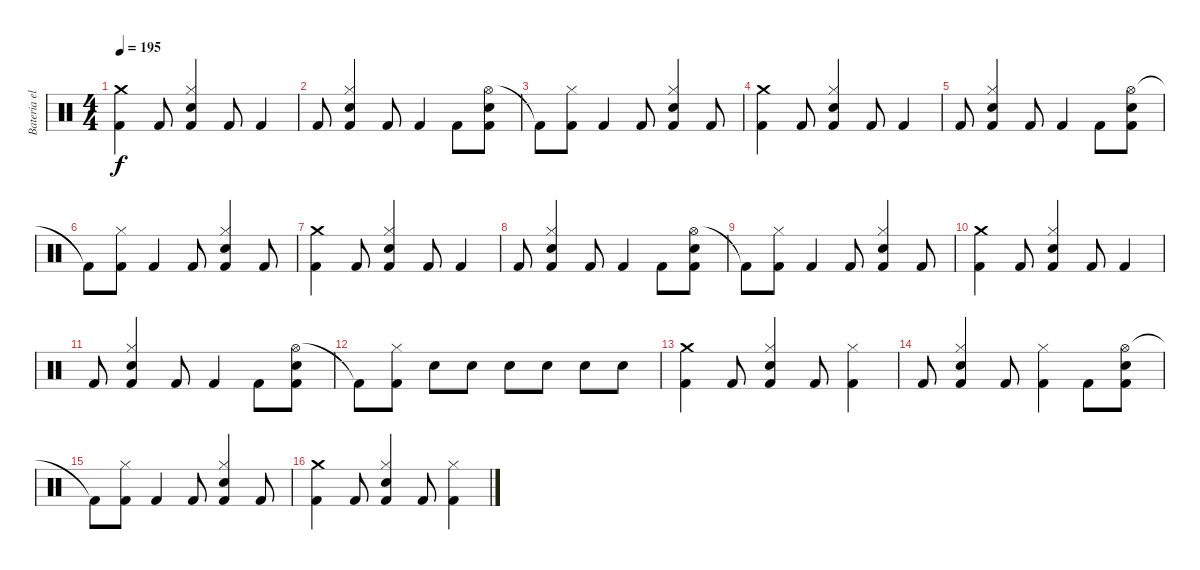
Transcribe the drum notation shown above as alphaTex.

\track ("Bateria electrica" "Bateria el") {instrument percussion}
\staff {score}
\articulation defaults
\ts (4 4)
\tempo 195
\clef neutral
\ks c
("Crash medium (hit)" "Kick (hit) 2").4{dy f} "Kick (hit) 2".8 ("Hi-Hat (closed)" "Kick (hit) 2" "Snare (hit) 2").4 "Kick (hit) 2".8 "Kick (hit) 2".4 |
"Kick (hit) 2".8 ("Hi-Hat (closed)" "Kick (hit) 2" "Snare (hit) 2").4 "Kick (hit) 2".8 "Kick (hit) 2".4 "Kick (hit) 2".8 ("Hi-Hat (open)" "Kick (hit) 2" "Snare (hit) 2").8 |
"Kick (hit) 2"{t}.8 ("Hi-Hat (closed)" "Kick (hit) 2").8 "Kick (hit) 2".4 "Kick (hit) 2".8 ("Hi-Hat (closed)" "Kick (hit) 2" "Snare (hit) 2").4 "Kick (hit) 2".8 |
("Crash medium (hit)" "Kick (hit) 2").4 "Kick (hit) 2".8 ("Hi-Hat (closed)" "Kick (hit) 2" "Snare (hit) 2").4 "Kick (hit) 2".8 "Kick (hit) 2".4 |
"Kick (hit) 2".8 ("Hi-Hat (closed)" "Kick (hit) 2" "Snare (hit) 2").4 "Kick (hit) 2".8 "Kick (hit) 2".4 "Kick (hit) 2".8 ("Hi-Hat (open)" "Kick (hit) 2" "Snare (hit) 2").8 |
"Kick (hit) 2"{t}.8 ("Hi-Hat (closed)" "Kick (hit) 2").8 "Kick (hit) 2".4 "Kick (hit) 2".8 ("Hi-Hat (closed)" "Kick (hit) 2" "Snare (hit) 2").4 "Kick (hit) 2".8 |
("Crash medium (hit)" "Kick (hit) 2").4 "Kick (hit) 2".8 ("Hi-Hat (closed)" "Kick (hit) 2" "Snare (hit) 2").4 "Kick (hit) 2".8 "Kick (hit) 2".4 |
"Kick (hit) 2".8 ("Hi-Hat (closed)" "Kick (hit) 2" "Snare (hit) 2").4 "Kick (hit) 2".8 "Kick (hit) 2".4 "Kick (hit) 2".8 ("Hi-Hat (open)" "Kick (hit) 2" "Snare (hit) 2").8 |
"Kick (hit) 2"{t}.8 ("Hi-Hat (closed)" "Kick (hit) 2").8 "Kick (hit) 2".4 "Kick (hit) 2".8 ("Hi-Hat (closed)" "Kick (hit) 2" "Snare (hit) 2").4 "Kick (hit) 2".8 |
("Crash medium (hit)" "Kick (hit) 2").4 "Kick (hit) 2".8 ("Hi-Hat (closed)" "Kick (hit) 2" "Snare (hit) 2").4 "Kick (hit) 2".8 "Kick (hit) 2".4 |
"Kick (hit) 2".8 ("Hi-Hat (closed)" "Kick (hit) 2" "Snare (hit) 2").4 "Kick (hit) 2".8 "Kick (hit) 2".4 "Kick (hit) 2".8 ("Hi-Hat (open)" "Kick (hit) 2" "Snare (hit) 2").8 |
"Kick (hit) 2"{t}.8 ("Hi-Hat (closed)" "Kick (hit) 2").8 "Snare (hit) 2".8 "Snare (hit) 2".8 "Snare (hit) 2".8 "Snare (hit) 2".8 "Snare (hit) 2".8 "Snare (hit) 2".8 |
("Crash medium (hit)" "Kick (hit) 2").4 "Kick (hit) 2".8 ("Hi-Hat (closed)" "Kick (hit) 2" "Snare (hit) 2").4 "Kick (hit) 2".8 ("Hi-Hat (closed)" "Kick (hit) 2").4 |
"Kick (hit) 2".8 ("Hi-Hat (closed)" "Kick (hit) 2" "Snare (hit) 2").4 "Kick (hit) 2".8 ("Hi-Hat (closed)" "Kick (hit) 2").4 "Kick (hit) 2".8 ("Hi-Hat (open)" "Kick (hit) 2" "Snare (hit) 2").8 |
"Kick (hit) 2"{t}.8 ("Hi-Hat (closed)" "Kick (hit) 2").8 "Kick (hit) 2".4 "Kick (hit) 2".8 ("Hi-Hat (closed)" "Kick (hit) 2" "Snare (hit) 2").4 "Kick (hit) 2".8 |
("Crash medium (hit)" "Kick (hit) 2").4 "Kick (hit) 2".8 ("Hi-Hat (closed)" "Kick (hit) 2" "Snare (hit) 2").4 "Kick (hit) 2".8 ("Hi-Hat (closed)" "Kick (hit) 2").4
